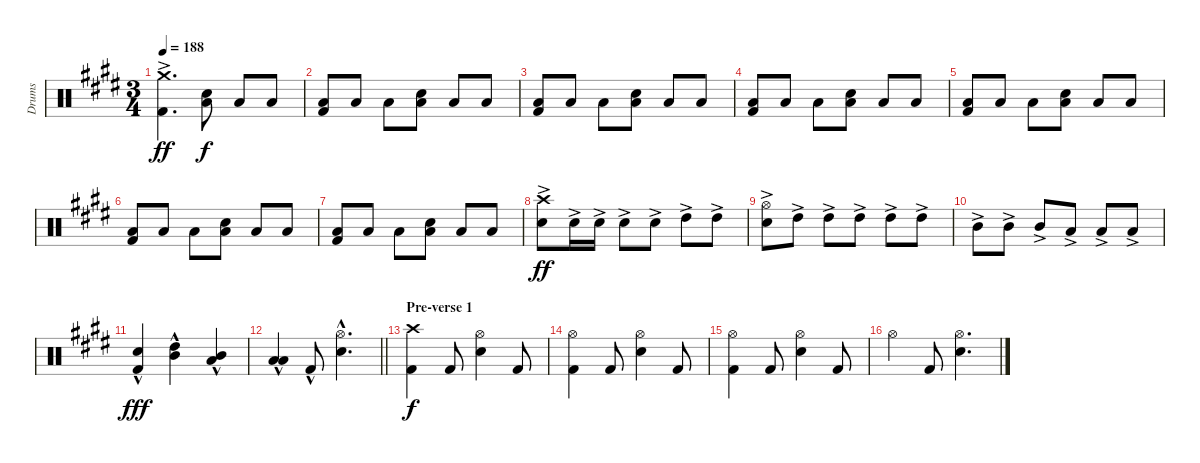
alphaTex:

\track ("Drums" "Drums") {instrument percussion}
\staff {score}
\articulation defaults
\ts (3 4)
\tempo 188
\clef neutral
\ks e
("Crash medium (hit)" "Kick (hit) 2"{ac}).4{d dy ff} ("Electric Snare (hit)" "Low Floor Tom (hit)").8{dy f} "Low Floor Tom (hit)".8 "Low Floor Tom (hit)".8 |
("Low Floor Tom (hit)" "Kick (hit) 2").8 "Low Floor Tom (hit)".8 "Low Floor Tom (hit)".8 ("Electric Snare (hit)" "Low Floor Tom (hit)").8 "Low Floor Tom (hit)".8 "Low Floor Tom (hit)".8 |
("Low Floor Tom (hit)" "Kick (hit) 2").8 "Low Floor Tom (hit)".8 "Low Floor Tom (hit)".8 ("Electric Snare (hit)" "Low Floor Tom (hit)").8 "Low Floor Tom (hit)".8 "Low Floor Tom (hit)".8 |
("Low Floor Tom (hit)" "Kick (hit) 2").8 "Low Floor Tom (hit)".8 "Low Floor Tom (hit)".8 ("Electric Snare (hit)" "Low Floor Tom (hit)").8 "Low Floor Tom (hit)".8 "Low Floor Tom (hit)".8 |
("Low Floor Tom (hit)" "Kick (hit) 2").8 "Low Floor Tom (hit)".8 "Low Floor Tom (hit)".8 ("Electric Snare (hit)" "Low Floor Tom (hit)").8 "Low Floor Tom (hit)".8 "Low Floor Tom (hit)".8 |
("Low Floor Tom (hit)" "Kick (hit) 2").8 "Low Floor Tom (hit)".8 "Low Floor Tom (hit)".8 ("Electric Snare (hit)" "Low Floor Tom (hit)").8 "Low Floor Tom (hit)".8 "Low Floor Tom (hit)".8 |
("Low Floor Tom (hit)" "Kick (hit) 2").8 "Low Floor Tom (hit)".8 "Low Floor Tom (hit)".8 ("Electric Snare (hit)" "Low Floor Tom (hit)").8 "Low Floor Tom (hit)".8 "Low Floor Tom (hit)".8 |
("Crash high (hit)" "Electric Snare (hit)"{ac}).8{dy ff} "Electric Snare (hit)"{ac}.16 "Electric Snare (hit)"{ac}.16 "Electric Snare (hit)"{ac}.8 "Electric Snare (hit)"{ac}.8 "High Tom (hit)"{ac}.8 "High Tom (hit)"{ac}.8 |
("Hi-Hat (open)"{ac} "Electric Snare (hit)"{ac}).8 "High Tom (hit)"{ac}.8 "High Tom (hit)"{ac}.8 "High Tom (hit)"{ac}.8 "High Tom (hit)"{ac}.8 "High Tom (hit)"{ac}.8 |
"Mid Tom (hit)"{ac}.8 "Mid Tom (hit)"{ac}.8 "Mid Tom (hit)"{ac}.8 "Low Tom (hit)"{ac}.8 "Low Tom (hit)"{ac}.8 "Low Tom (hit)"{ac}.8 |
("Electric Snare (hit)"{hac} "Kick (hit) 2"{hac}).4{dy fff} ("High Tom (hit)"{hac} "Mid Tom (hit)"{hac}).4 ("Mid Tom (hit)"{hac} "Low Tom (hit)"{hac}).4 |
\barLineRight lightlight
("Low Tom (hit)"{hac} "Low Floor Tom (hit)"{hac}).4 "Kick (hit) 2"{hac}.8 ("Hi-Hat (open)"{hac} "Electric Snare (hit)"{hac}).4{d} |
\section ("" "Pre-verse 1")
("Crash high (hit)" "Kick (hit) 2").4{dy f} "Kick (hit) 2".8 ("Hi-Hat (open)" "Electric Snare (hit)").4 "Kick (hit) 2".8 |
("Hi-Hat (open)" "Kick (hit) 2").4 "Kick (hit) 2".8 ("Hi-Hat (open)" "Electric Snare (hit)").4 "Kick (hit) 2".8 |
("Hi-Hat (open)" "Kick (hit) 2").4 "Kick (hit) 2".8 ("Hi-Hat (open)" "Electric Snare (hit)").4 "Kick (hit) 2".8 |
"Hi-Hat (open)".4 "Kick (hit) 2".8 ("Hi-Hat (open)" "Electric Snare (hit)").4{d}
